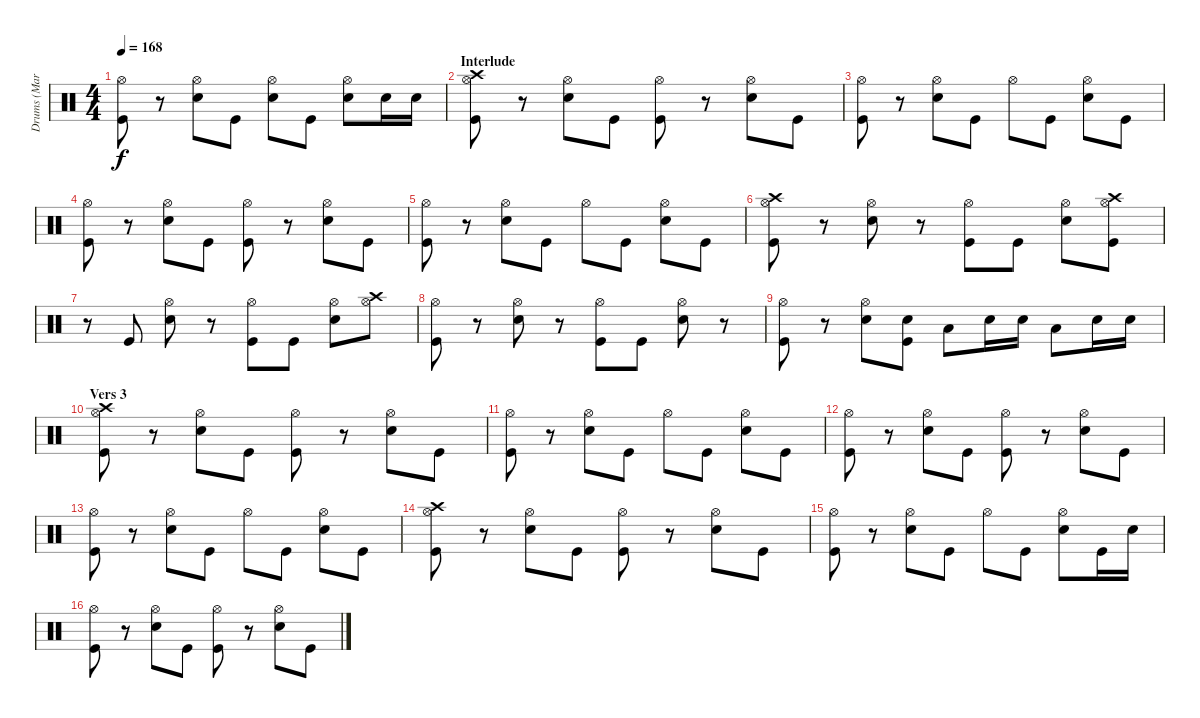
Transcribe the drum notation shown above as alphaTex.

\track ("Drums (Mark Michals)" "Drums (Mar") {instrument percussion}
\staff {score}
\articulation defaults
\ts (4 4)
\tempo 168
\clef neutral
\ks c
("Hi-Hat (open)" "Kick (hit)").8{dy f} r.8 ("Hi-Hat (open)" "Snare (hit) 2").8 "Kick (hit)".8 ("Hi-Hat (open)" "Snare (hit) 2").8 "Kick (hit)".8 ("Hi-Hat (open)" "Snare (hit) 2").8 "Snare (hit) 2".16 "Snare (hit) 2".16 |
\section ("" "Interlude")
("Hi-Hat (open)" "Crash high (hit)" "Kick (hit)").8 r.8 ("Hi-Hat (open)" "Snare (hit) 2").8 "Kick (hit)".8 ("Hi-Hat (open)" "Kick (hit)").8 r.8 ("Hi-Hat (open)" "Snare (hit) 2").8 "Kick (hit)".8 |
("Hi-Hat (open)" "Kick (hit)").8 r.8 ("Hi-Hat (open)" "Snare (hit) 2").8 "Kick (hit)".8 "Hi-Hat (open)".8 "Kick (hit)".8 ("Hi-Hat (open)" "Snare (hit) 2").8 "Kick (hit)".8 |
("Hi-Hat (open)" "Kick (hit)").8 r.8 ("Hi-Hat (open)" "Snare (hit) 2").8 "Kick (hit)".8 ("Hi-Hat (open)" "Kick (hit)").8 r.8 ("Hi-Hat (open)" "Snare (hit) 2").8 "Kick (hit)".8 |
("Hi-Hat (open)" "Kick (hit)").8 r.8 ("Hi-Hat (open)" "Snare (hit) 2").8 "Kick (hit)".8 "Hi-Hat (open)".8 "Kick (hit)".8 ("Hi-Hat (open)" "Snare (hit) 2").8 "Kick (hit)".8 |
("Hi-Hat (open)" "Crash high (hit)" "Kick (hit)").8 r.8 ("Hi-Hat (open)" "Snare (hit) 2").8 r.8 ("Hi-Hat (open)" "Kick (hit)").8 "Kick (hit)".8 ("Hi-Hat (open)" "Snare (hit) 2").8 ("Hi-Hat (open)" "Crash high (hit)" "Kick (hit)").8 |
r.8 "Kick (hit)".8 ("Hi-Hat (open)" "Snare (hit) 2").8 r.8 ("Hi-Hat (open)" "Kick (hit)").8 "Kick (hit)".8 ("Hi-Hat (open)" "Snare (hit) 2").8 ("Hi-Hat (open)" "Crash high (hit)").8 |
("Hi-Hat (open)" "Kick (hit)").8 r.8 ("Hi-Hat (open)" "Snare (hit) 2").8 r.8 ("Hi-Hat (open)" "Kick (hit)").8 "Kick (hit)".8 ("Hi-Hat (open)" "Snare (hit) 2").8 r.8 |
("Hi-Hat (open)" "Kick (hit)").8 r.8 ("Hi-Hat (open)" "Snare (hit) 2").8 ("Snare (hit) 2" "Kick (hit)").8 "Low Tom (hit)".8 "Snare (hit) 2".16 "Snare (hit) 2".16 "Low Tom (hit)".8 "Snare (hit) 2".16 "Snare (hit) 2".16 |
\section ("" "Vers 3")
("Hi-Hat (open)" "Crash high (hit)" "Kick (hit)").8 r.8 ("Hi-Hat (open)" "Snare (hit) 2").8 "Kick (hit)".8 ("Hi-Hat (open)" "Kick (hit)").8 r.8 ("Hi-Hat (open)" "Snare (hit) 2").8 "Kick (hit)".8 |
("Hi-Hat (open)" "Kick (hit)").8 r.8 ("Hi-Hat (open)" "Snare (hit) 2").8 "Kick (hit)".8 "Hi-Hat (open)".8 "Kick (hit)".8 ("Hi-Hat (open)" "Snare (hit) 2").8 "Kick (hit)".8 |
("Hi-Hat (open)" "Kick (hit)").8 r.8 ("Hi-Hat (open)" "Snare (hit) 2").8 "Kick (hit)".8 ("Hi-Hat (open)" "Kick (hit)").8 r.8 ("Hi-Hat (open)" "Snare (hit) 2").8 "Kick (hit)".8 |
("Hi-Hat (open)" "Kick (hit)").8 r.8 ("Hi-Hat (open)" "Snare (hit) 2").8 "Kick (hit)".8 "Hi-Hat (open)".8 "Kick (hit)".8 ("Hi-Hat (open)" "Snare (hit) 2").8 "Kick (hit)".8 |
("Hi-Hat (open)" "Crash high (hit)" "Kick (hit)").8 r.8 ("Hi-Hat (open)" "Snare (hit) 2").8 "Kick (hit)".8 ("Hi-Hat (open)" "Kick (hit)").8 r.8 ("Hi-Hat (open)" "Snare (hit) 2").8 "Kick (hit)".8 |
("Hi-Hat (open)" "Kick (hit)").8 r.8 ("Hi-Hat (open)" "Snare (hit) 2").8 "Kick (hit)".8 "Hi-Hat (open)".8 "Kick (hit)".8 ("Hi-Hat (open)" "Snare (hit) 2").8 "Kick (hit)".16 "Snare (hit) 2".16 |
("Hi-Hat (open)" "Kick (hit)").8 r.8 ("Hi-Hat (open)" "Snare (hit) 2").8 "Kick (hit)".8 ("Hi-Hat (open)" "Kick (hit)").8 r.8 ("Hi-Hat (open)" "Snare (hit) 2").8 "Kick (hit)".8
